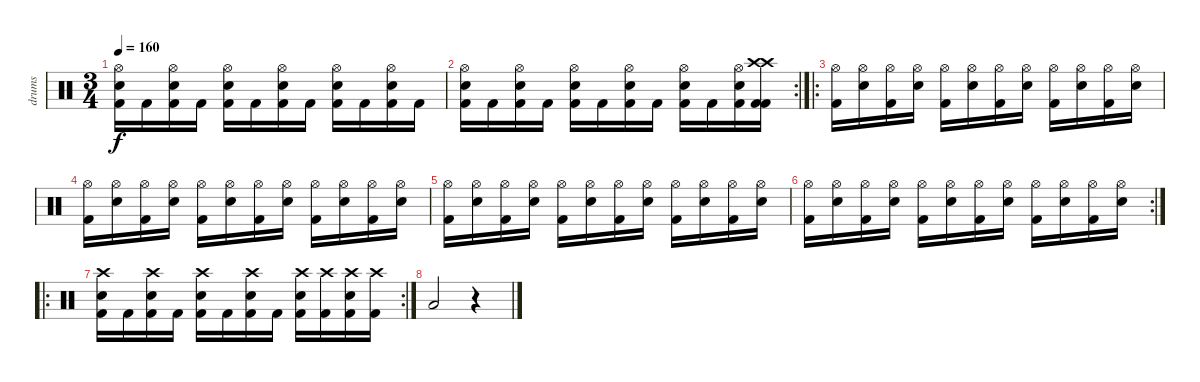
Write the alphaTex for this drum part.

\track ("drums" "drums") {instrument percussion}
\staff {score}
\articulation defaults
\ts (3 4)
\tempo 160
\clef neutral
\ks c
("Hi-Hat (open)" "Electric Snare (hit)" "Kick (hit) 2").16{dy f} "Kick (hit) 2".16 ("Hi-Hat (open)" "Electric Snare (hit)" "Kick (hit) 2").16 "Kick (hit) 2".16 ("Hi-Hat (open)" "Electric Snare (hit)" "Kick (hit) 2").16 "Kick (hit) 2".16 ("Hi-Hat (open)" "Electric Snare (hit)" "Kick (hit) 2").16 "Kick (hit) 2".16 ("Hi-Hat (open)" "Electric Snare (hit)" "Kick (hit) 2").16 "Kick (hit) 2".16 ("Hi-Hat (open)" "Electric Snare (hit)" "Kick (hit) 2").16 "Kick (hit) 2".16 |
\rc 2
("Hi-Hat (open)" "Electric Snare (hit)" "Kick (hit) 2").16 "Kick (hit) 2".16 ("Hi-Hat (open)" "Electric Snare (hit)" "Kick (hit) 2").16 "Kick (hit) 2".16 ("Hi-Hat (open)" "Electric Snare (hit)" "Kick (hit) 2").16 "Kick (hit) 2".16 ("Hi-Hat (open)" "Electric Snare (hit)" "Kick (hit) 2").16 "Kick (hit) 2".16 ("Hi-Hat (open)" "Electric Snare (hit)" "Kick (hit) 2").16 "Kick (hit) 2".16 ("Hi-Hat (open)" "Electric Snare (hit)" "Kick (hit) 2").16 ("Crash high (hit)" "Crash high (hit)" "Kick (hit) 2" "Kick (hit) 2").16 |
\ro
("Kick (hit) 2" "Hi-Hat (open)").16 ("Electric Snare (hit)" "Hi-Hat (open)").16 ("Kick (hit) 2" "Hi-Hat (open)").16 ("Electric Snare (hit)" "Hi-Hat (open)").16 ("Kick (hit) 2" "Hi-Hat (open)").16 ("Electric Snare (hit)" "Hi-Hat (open)").16 ("Kick (hit) 2" "Hi-Hat (open)").16 ("Electric Snare (hit)" "Hi-Hat (open)").16 ("Kick (hit) 2" "Hi-Hat (open)").16 ("Electric Snare (hit)" "Hi-Hat (open)").16 ("Kick (hit) 2" "Hi-Hat (open)").16 ("Electric Snare (hit)" "Hi-Hat (open)").16 |
("Kick (hit) 2" "Hi-Hat (open)").16 ("Electric Snare (hit)" "Hi-Hat (open)").16 ("Kick (hit) 2" "Hi-Hat (open)").16 ("Electric Snare (hit)" "Hi-Hat (open)").16 ("Kick (hit) 2" "Hi-Hat (open)").16 ("Electric Snare (hit)" "Hi-Hat (open)").16 ("Kick (hit) 2" "Hi-Hat (open)").16 ("Electric Snare (hit)" "Hi-Hat (open)").16 ("Kick (hit) 2" "Hi-Hat (open)").16 ("Electric Snare (hit)" "Hi-Hat (open)").16 ("Kick (hit) 2" "Hi-Hat (open)").16 ("Electric Snare (hit)" "Hi-Hat (open)").16 |
("Kick (hit) 2" "Hi-Hat (open)").16 ("Electric Snare (hit)" "Hi-Hat (open)").16 ("Kick (hit) 2" "Hi-Hat (open)").16 ("Electric Snare (hit)" "Hi-Hat (open)").16 ("Kick (hit) 2" "Hi-Hat (open)").16 ("Electric Snare (hit)" "Hi-Hat (open)").16 ("Kick (hit) 2" "Hi-Hat (open)").16 ("Electric Snare (hit)" "Hi-Hat (open)").16 ("Kick (hit) 2" "Hi-Hat (open)").16 ("Electric Snare (hit)" "Hi-Hat (open)").16 ("Kick (hit) 2" "Hi-Hat (open)").16 ("Electric Snare (hit)" "Hi-Hat (open)").16 |
\rc 2
("Kick (hit) 2" "Hi-Hat (open)").16 ("Electric Snare (hit)" "Hi-Hat (open)").16 ("Kick (hit) 2" "Hi-Hat (open)").16 ("Electric Snare (hit)" "Hi-Hat (open)").16 ("Kick (hit) 2" "Hi-Hat (open)").16 ("Electric Snare (hit)" "Hi-Hat (open)").16 ("Kick (hit) 2" "Hi-Hat (open)").16 ("Electric Snare (hit)" "Hi-Hat (open)").16 ("Kick (hit) 2" "Hi-Hat (open)").16 ("Electric Snare (hit)" "Hi-Hat (open)").16 ("Kick (hit) 2" "Hi-Hat (open)").16 ("Electric Snare (hit)" "Hi-Hat (open)").16 |
\ro
\rc 2
("Crash high (hit)" "Electric Snare (hit)" "Kick (hit) 2").16 "Kick (hit) 2".16 ("Crash high (hit)" "Electric Snare (hit)" "Kick (hit) 2").16 "Kick (hit) 2".16 ("Crash high (hit)" "Electric Snare (hit)" "Kick (hit) 2").16 "Kick (hit) 2".16 ("Crash high (hit)" "Electric Snare (hit)" "Kick (hit) 2").16 "Kick (hit) 2".16 ("Crash high (hit)" "Electric Snare (hit)" "Kick (hit) 2").16 ("Crash high (hit)" "Kick (hit) 2").16 ("Crash high (hit)" "Electric Snare (hit)" "Kick (hit) 2").16 ("Crash high (hit)" "Kick (hit) 2").16 |
"Low Tom (hit)".2 r.4
